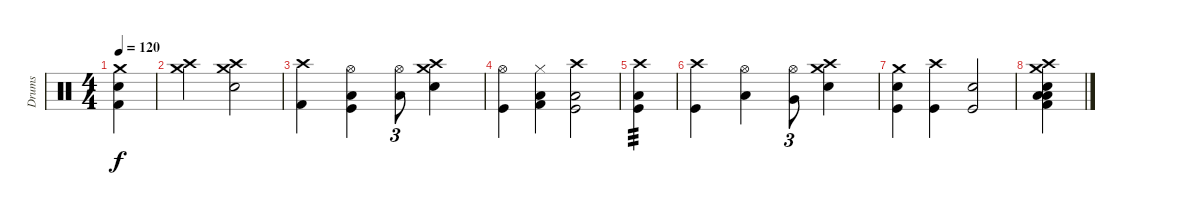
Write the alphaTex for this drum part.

\track ("Drums" "Drums") {instrument percussion}
\staff {score}
\articulation defaults
\ts (4 4)
\tempo 120
\clef neutral
\ks c
("Crash medium (hit)" "Snare (hit) 2" "Kick (hit) 2").4{dy f} |
("Crash medium (hit)" "Crash high (hit)").2 ("Crash medium (hit)" "Snare (hit) 2" "Crash high (hit)").2 |
("Crash high (hit)" "Kick (hit) 2").4 ("Hi-Hat (open)" "Low Tom (hit)" "Kick (hit)").4 ("Hi-Hat (open)" "Low Floor Tom (hit)").8{tu (3 2)} ("Crash medium (hit)" "Snare (hit) 2" "Crash high (hit)").4 |
("Hi-Hat (open)" "Kick (hit)").4 ("Hi-Hat (closed)" "Low Floor Tom (hit)" "Kick (hit) 2").4 ("Crash high (hit)" "Low Tom (hit)" "Kick (hit)").2 |
("Low Floor Tom (hit)" "Crash high (hit)" "Kick (hit)").4{tp 3} |
("Crash high (hit)" "Kick (hit)").4 ("Hi-Hat (open)" "Low Floor Tom (hit)").4 ("Hi-Hat (open)" "Very Low Tom (hit)").8{tu (3 2)} ("Crash medium (hit)" "Snare (hit) 2" "Crash high (hit)").4 |
("Crash medium (hit)" "Snare (hit) 2" "Kick (hit)").4 ("Crash high (hit)" "Kick (hit)").4 ("Snare (hit) 2" "Kick (hit)").2 |
("Crash high (hit)" "Crash medium (hit)" "Snare (hit) 2" "Low Tom (hit)" "Low Floor Tom (hit)" "Kick (hit) 2").4
